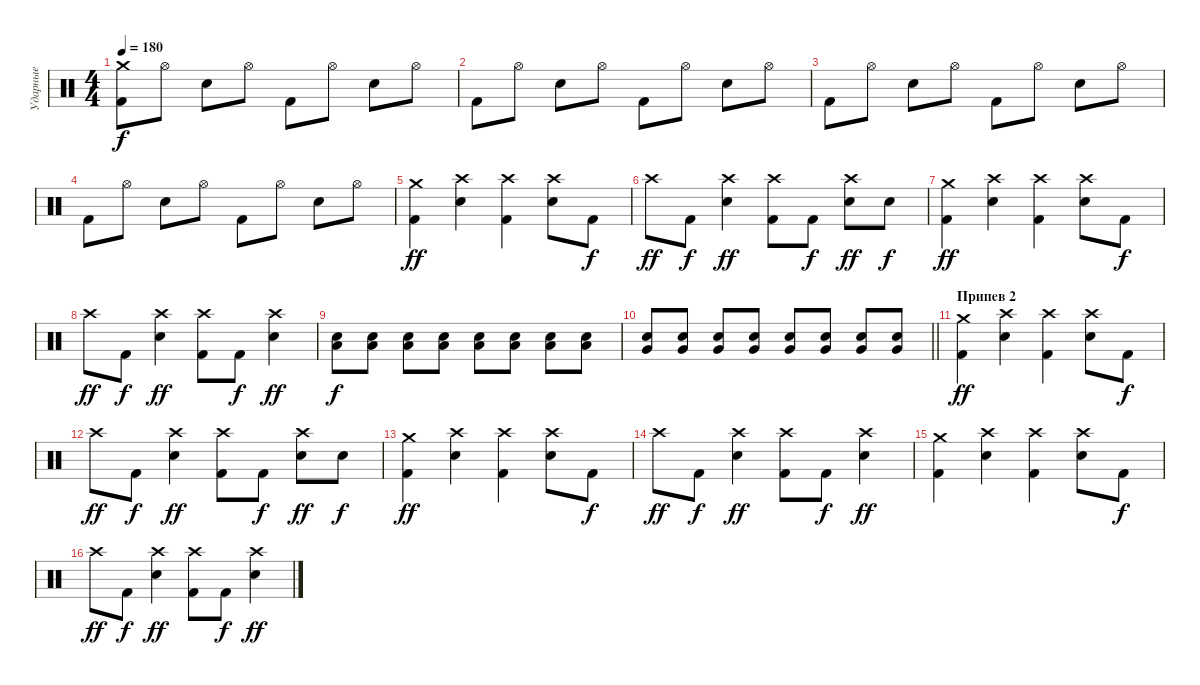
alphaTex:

\track ("Ударные" "Ударные") {instrument percussion}
\staff {score}
\articulation defaults
\ts (4 4)
\tempo 180
\clef neutral
\ks c
("Crash medium (hit)" "Kick (hit) 2").8{dy f} "Hi-Hat (open)".8 "Snare (hit) 2".8 "Hi-Hat (open)".8 "Kick (hit) 2".8 "Hi-Hat (open)".8 "Snare (hit) 2".8 "Hi-Hat (open)".8 |
"Kick (hit) 2".8 "Hi-Hat (open)".8 "Snare (hit) 2".8 "Hi-Hat (open)".8 "Kick (hit) 2".8 "Hi-Hat (open)".8 "Snare (hit) 2".8 "Hi-Hat (open)".8 |
"Kick (hit) 2".8 "Hi-Hat (open)".8 "Snare (hit) 2".8 "Hi-Hat (open)".8 "Kick (hit) 2".8 "Hi-Hat (open)".8 "Snare (hit) 2".8 "Hi-Hat (open)".8 |
"Kick (hit) 2".8 "Hi-Hat (open)".8 "Snare (hit) 2".8 "Hi-Hat (open)".8 "Kick (hit) 2".8 "Hi-Hat (open)".8 "Snare (hit) 2".8 "Hi-Hat (open)".8 |
("Crash medium (hit)" "Kick (hit) 2").4{dy ff} ("Crash high (hit)" "Snare (hit) 2").4 ("Crash high (hit)" "Kick (hit) 2").4 ("Crash high (hit)" "Snare (hit) 2").8 "Kick (hit) 2".8{dy f} |
"Crash high (hit)".8{dy ff} "Kick (hit) 2".8{dy f} ("Crash high (hit)" "Snare (hit) 2").4{dy ff} ("Crash high (hit)" "Kick (hit) 2").8 "Kick (hit) 2".8{dy f} ("Crash high (hit)" "Snare (hit) 2").8{dy ff} "Snare (hit) 2".8{dy f} |
("Crash medium (hit)" "Kick (hit) 2").4{dy ff} ("Crash high (hit)" "Snare (hit) 2").4 ("Crash high (hit)" "Kick (hit) 2").4 ("Crash high (hit)" "Snare (hit) 2").8 "Kick (hit) 2".8{dy f} |
"Crash high (hit)".8{dy ff} "Kick (hit) 2".8{dy f} ("Crash high (hit)" "Snare (hit) 2").4{dy ff} ("Crash high (hit)" "Kick (hit) 2").8 "Kick (hit) 2".8{dy f} ("Crash high (hit)" "Snare (hit) 2").4{dy ff} |
("Low Tom (hit)" "Snare (hit) 2").8{dy f} ("Low Tom (hit)" "Snare (hit) 2").8 ("Low Tom (hit)" "Snare (hit) 2").8 ("Low Tom (hit)" "Snare (hit) 2").8 ("Low Tom (hit)" "Snare (hit) 2").8 ("Low Tom (hit)" "Snare (hit) 2").8 ("Low Tom (hit)" "Snare (hit) 2").8 ("Low Tom (hit)" "Snare (hit) 2").8 |
\barLineRight lightlight
("Snare (hit) 2" "Very Low Tom (hit)").8 ("Snare (hit) 2" "Very Low Tom (hit)").8 ("Snare (hit) 2" "Very Low Tom (hit)").8 ("Snare (hit) 2" "Very Low Tom (hit)").8 ("Snare (hit) 2" "Very Low Tom (hit)").8 ("Snare (hit) 2" "Very Low Tom (hit)").8 ("Snare (hit) 2" "Very Low Tom (hit)").8 ("Snare (hit) 2" "Very Low Tom (hit)").8 |
\section ("" "Припев 2")
("Crash medium (hit)" "Kick (hit) 2").4{dy ff} ("Crash high (hit)" "Snare (hit) 2").4 ("Crash high (hit)" "Kick (hit) 2").4 ("Crash high (hit)" "Snare (hit) 2").8 "Kick (hit) 2".8{dy f} |
"Crash high (hit)".8{dy ff} "Kick (hit) 2".8{dy f} ("Crash high (hit)" "Snare (hit) 2").4{dy ff} ("Crash high (hit)" "Kick (hit) 2").8 "Kick (hit) 2".8{dy f} ("Crash high (hit)" "Snare (hit) 2").8{dy ff} "Snare (hit) 2".8{dy f} |
("Crash medium (hit)" "Kick (hit) 2").4{dy ff} ("Crash high (hit)" "Snare (hit) 2").4 ("Crash high (hit)" "Kick (hit) 2").4 ("Crash high (hit)" "Snare (hit) 2").8 "Kick (hit) 2".8{dy f} |
"Crash high (hit)".8{dy ff} "Kick (hit) 2".8{dy f} ("Crash high (hit)" "Snare (hit) 2").4{dy ff} ("Crash high (hit)" "Kick (hit) 2").8 "Kick (hit) 2".8{dy f} ("Crash high (hit)" "Snare (hit) 2").4{dy ff} |
("Crash medium (hit)" "Kick (hit) 2").4 ("Crash high (hit)" "Snare (hit) 2").4 ("Crash high (hit)" "Kick (hit) 2").4 ("Crash high (hit)" "Snare (hit) 2").8 "Kick (hit) 2".8{dy f} |
"Crash high (hit)".8{dy ff} "Kick (hit) 2".8{dy f} ("Crash high (hit)" "Snare (hit) 2").4{dy ff} ("Crash high (hit)" "Kick (hit) 2").8 "Kick (hit) 2".8{dy f} ("Crash high (hit)" "Snare (hit) 2").4{dy ff}
